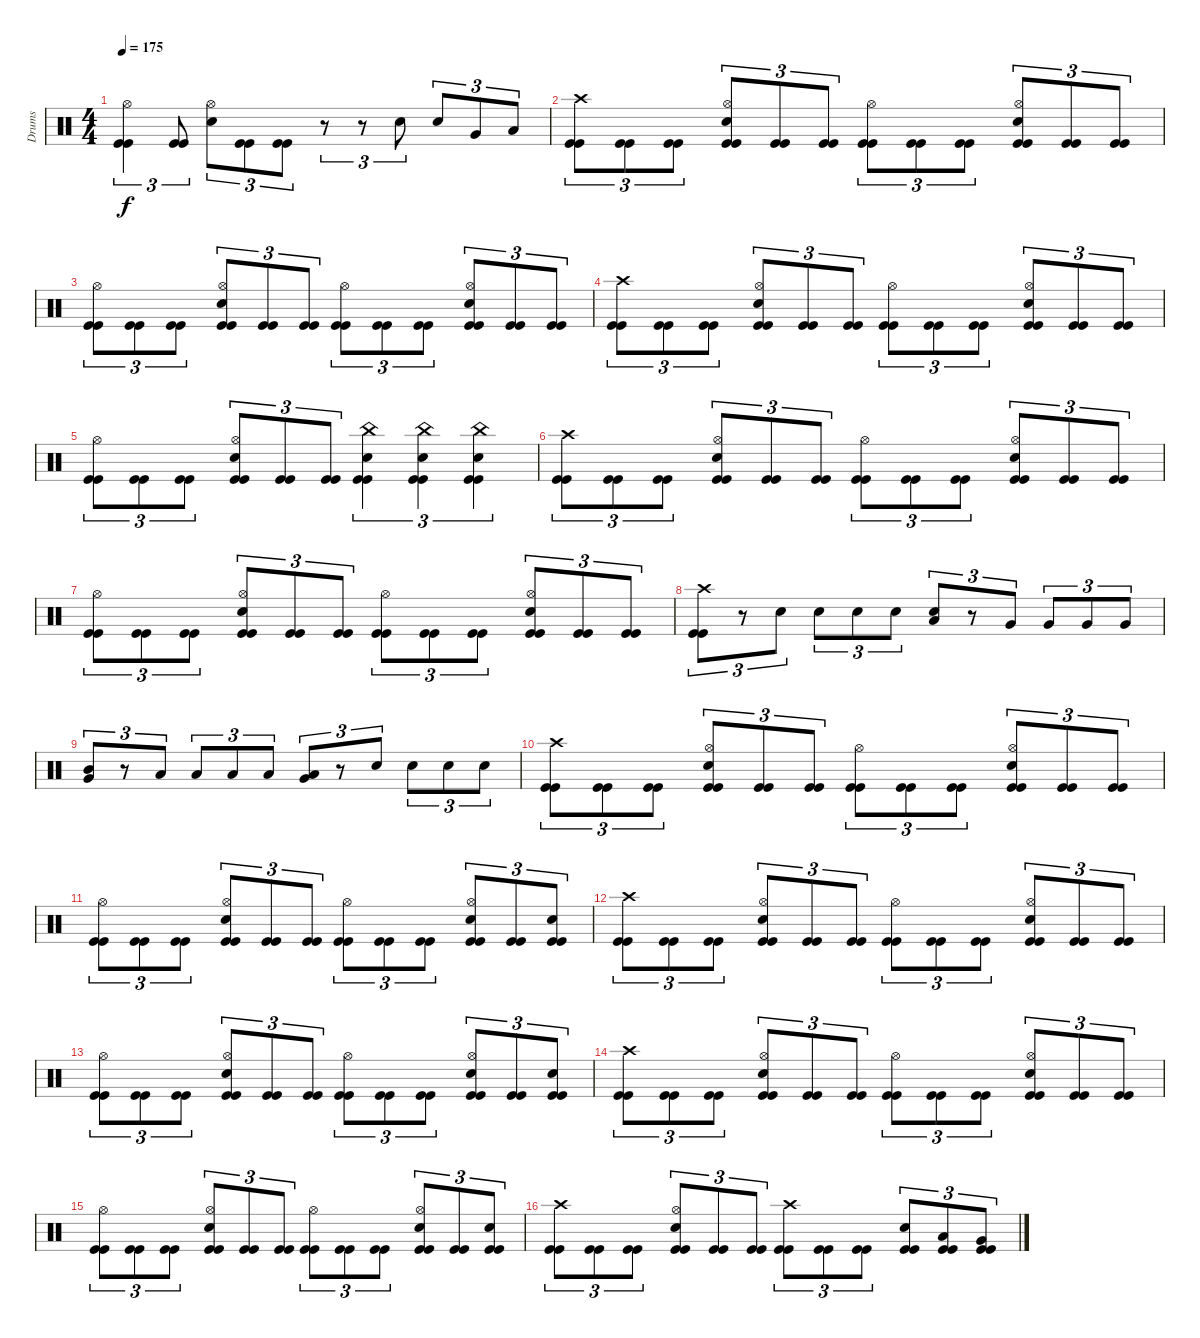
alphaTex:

\track ("Drums" "Drums") {instrument percussion}
\staff {score}
\articulation defaults
\ts (4 4)
\tempo 175
\clef neutral
\ks c
("Kick (hit)" "Kick (hit)" "Hi-Hat (open)").4{tu (3 2) dy f} ("Kick (hit)" "Kick (hit)").8{tu (3 2)} ("Snare (hit) 2" "Hi-Hat (open)").8{tu (3 2)} ("Kick (hit)" "Kick (hit)").8{tu (3 2)} ("Kick (hit)" "Kick (hit)").8{tu (3 2)} r.8{tu (3 2)} r.8{tu (3 2)} "Snare (hit) 2".8{tu (3 2)} "Snare (hit) 2".8{tu (3 2)} "Very Low Tom (hit)".8{tu (3 2)} "Low Floor Tom (hit)".8{tu (3 2)} |
("Kick (hit)" "Kick (hit)" "Crash high (hit)").8{tu (3 2)} ("Kick (hit)" "Kick (hit)").8{tu (3 2)} ("Kick (hit)" "Kick (hit)").8{tu (3 2)} ("Kick (hit)" "Kick (hit)" "Snare (hit) 2" "Hi-Hat (open)").8{tu (3 2)} ("Kick (hit)" "Kick (hit)").8{tu (3 2)} ("Kick (hit)" "Kick (hit)").8{tu (3 2)} ("Kick (hit)" "Kick (hit)" "Hi-Hat (open)").8{tu (3 2)} ("Kick (hit)" "Kick (hit)").8{tu (3 2)} ("Kick (hit)" "Kick (hit)").8{tu (3 2)} ("Kick (hit)" "Kick (hit)" "Snare (hit) 2" "Hi-Hat (open)").8{tu (3 2)} ("Kick (hit)" "Kick (hit)").8{tu (3 2)} ("Kick (hit)" "Kick (hit)").8{tu (3 2)} |
("Kick (hit)" "Kick (hit)" "Hi-Hat (open)").8{tu (3 2)} ("Kick (hit)" "Kick (hit)").8{tu (3 2)} ("Kick (hit)" "Kick (hit)").8{tu (3 2)} ("Kick (hit)" "Kick (hit)" "Snare (hit) 2" "Hi-Hat (open)").8{tu (3 2)} ("Kick (hit)" "Kick (hit)").8{tu (3 2)} ("Kick (hit)" "Kick (hit)").8{tu (3 2)} ("Kick (hit)" "Kick (hit)" "Hi-Hat (open)").8{tu (3 2)} ("Kick (hit)" "Kick (hit)").8{tu (3 2)} ("Kick (hit)" "Kick (hit)").8{tu (3 2)} ("Kick (hit)" "Kick (hit)" "Snare (hit) 2" "Hi-Hat (open)").8{tu (3 2)} ("Kick (hit)" "Kick (hit)").8{tu (3 2)} ("Kick (hit)" "Kick (hit)").8{tu (3 2)} |
("Kick (hit)" "Kick (hit)" "Crash high (hit)").8{tu (3 2)} ("Kick (hit)" "Kick (hit)").8{tu (3 2)} ("Kick (hit)" "Kick (hit)").8{tu (3 2)} ("Kick (hit)" "Kick (hit)" "Snare (hit) 2" "Hi-Hat (open)").8{tu (3 2)} ("Kick (hit)" "Kick (hit)").8{tu (3 2)} ("Kick (hit)" "Kick (hit)").8{tu (3 2)} ("Kick (hit)" "Kick (hit)" "Hi-Hat (open)").8{tu (3 2)} ("Kick (hit)" "Kick (hit)").8{tu (3 2)} ("Kick (hit)" "Kick (hit)").8{tu (3 2)} ("Kick (hit)" "Kick (hit)" "Snare (hit) 2" "Hi-Hat (open)").8{tu (3 2)} ("Kick (hit)" "Kick (hit)").8{tu (3 2)} ("Kick (hit)" "Kick (hit)").8{tu (3 2)} |
("Kick (hit)" "Kick (hit)" "Hi-Hat (open)").8{tu (3 2)} ("Kick (hit)" "Kick (hit)").8{tu (3 2)} ("Kick (hit)" "Kick (hit)").8{tu (3 2)} ("Kick (hit)" "Kick (hit)" "Snare (hit) 2" "Hi-Hat (open)").8{tu (3 2)} ("Kick (hit)" "Kick (hit)").8{tu (3 2)} ("Kick (hit)" "Kick (hit)").8{tu (3 2)} ("Kick (hit)" "Kick (hit)" "Snare (hit) 2" "China (hit)").4{tu (3 2)} ("Kick (hit)" "Kick (hit)" "Snare (hit) 2" "China (hit)").4{tu (3 2)} ("Kick (hit)" "Kick (hit)" "Snare (hit) 2" "China (hit)").4{tu (3 2)} |
("Kick (hit)" "Kick (hit)" "Crash high (hit)").8{tu (3 2)} ("Kick (hit)" "Kick (hit)").8{tu (3 2)} ("Kick (hit)" "Kick (hit)").8{tu (3 2)} ("Kick (hit)" "Kick (hit)" "Snare (hit) 2" "Hi-Hat (open)").8{tu (3 2)} ("Kick (hit)" "Kick (hit)").8{tu (3 2)} ("Kick (hit)" "Kick (hit)").8{tu (3 2)} ("Kick (hit)" "Kick (hit)" "Hi-Hat (open)").8{tu (3 2)} ("Kick (hit)" "Kick (hit)").8{tu (3 2)} ("Kick (hit)" "Kick (hit)").8{tu (3 2)} ("Kick (hit)" "Kick (hit)" "Snare (hit) 2" "Hi-Hat (open)").8{tu (3 2)} ("Kick (hit)" "Kick (hit)").8{tu (3 2)} ("Kick (hit)" "Kick (hit)").8{tu (3 2)} |
("Kick (hit)" "Kick (hit)" "Hi-Hat (open)").8{tu (3 2)} ("Kick (hit)" "Kick (hit)").8{tu (3 2)} ("Kick (hit)" "Kick (hit)").8{tu (3 2)} ("Kick (hit)" "Kick (hit)" "Snare (hit) 2" "Hi-Hat (open)").8{tu (3 2)} ("Kick (hit)" "Kick (hit)").8{tu (3 2)} ("Kick (hit)" "Kick (hit)").8{tu (3 2)} ("Kick (hit)" "Kick (hit)" "Hi-Hat (open)").8{tu (3 2)} ("Kick (hit)" "Kick (hit)").8{tu (3 2)} ("Kick (hit)" "Kick (hit)").8{tu (3 2)} ("Kick (hit)" "Kick (hit)" "Snare (hit) 2" "Hi-Hat (open)").8{tu (3 2)} ("Kick (hit)" "Kick (hit)").8{tu (3 2)} ("Kick (hit)" "Kick (hit)").8{tu (3 2)} |
("Kick (hit)" "Kick (hit)" "Crash high (hit)").8{tu (3 2)} r.8{tu (3 2)} "Snare (hit) 2".8{tu (3 2)} "Snare (hit) 2".8{tu (3 2)} "Snare (hit) 2".8{tu (3 2)} "Snare (hit) 2".8{tu (3 2)} ("Snare (hit) 2" "Low Tom (hit)").8{tu (3 2)} r.8{tu (3 2)} "Very Low Tom (hit)".8{tu (3 2)} "Very Low Tom (hit)".8{tu (3 2)} "Very Low Tom (hit)".8{tu (3 2)} "Very Low Tom (hit)".8{tu (3 2)} |
("Very Low Tom (hit)" "Mid Tom (hit)").8{tu (3 2)} r.8{tu (3 2)} "Low Floor Tom (hit)".8{tu (3 2)} "Low Floor Tom (hit)".8{tu (3 2)} "Low Floor Tom (hit)".8{tu (3 2)} "Low Floor Tom (hit)".8{tu (3 2)} ("Low Floor Tom (hit)" "Very Low Tom (hit)").8{tu (3 2)} r.8{tu (3 2)} "Snare (hit) 2".8{tu (3 2)} "Snare (hit) 2".8{tu (3 2)} "Snare (hit) 2".8{tu (3 2)} "Snare (hit) 2".8{tu (3 2)} |
("Kick (hit)" "Kick (hit)" "Crash high (hit)").8{tu (3 2)} ("Kick (hit)" "Kick (hit)").8{tu (3 2)} ("Kick (hit)" "Kick (hit)").8{tu (3 2)} ("Kick (hit)" "Kick (hit)" "Snare (hit) 2" "Hi-Hat (open)").8{tu (3 2)} ("Kick (hit)" "Kick (hit)").8{tu (3 2)} ("Kick (hit)" "Kick (hit)").8{tu (3 2)} ("Kick (hit)" "Kick (hit)" "Hi-Hat (open)").8{tu (3 2)} ("Kick (hit)" "Kick (hit)").8{tu (3 2)} ("Kick (hit)" "Kick (hit)").8{tu (3 2)} ("Kick (hit)" "Kick (hit)" "Snare (hit) 2" "Hi-Hat (open)").8{tu (3 2)} ("Kick (hit)" "Kick (hit)").8{tu (3 2)} ("Kick (hit)" "Kick (hit)").8{tu (3 2)} |
("Kick (hit)" "Kick (hit)" "Hi-Hat (open)").8{tu (3 2)} ("Kick (hit)" "Kick (hit)").8{tu (3 2)} ("Kick (hit)" "Kick (hit)").8{tu (3 2)} ("Kick (hit)" "Kick (hit)" "Snare (hit) 2" "Hi-Hat (open)").8{tu (3 2)} ("Kick (hit)" "Kick (hit)").8{tu (3 2)} ("Kick (hit)" "Kick (hit)").8{tu (3 2)} ("Kick (hit)" "Kick (hit)" "Hi-Hat (open)").8{tu (3 2)} ("Kick (hit)" "Kick (hit)").8{tu (3 2)} ("Kick (hit)" "Kick (hit)").8{tu (3 2)} ("Kick (hit)" "Kick (hit)" "Snare (hit) 2" "Hi-Hat (open)").8{tu (3 2)} ("Kick (hit)" "Kick (hit)").8{tu (3 2)} ("Kick (hit)" "Kick (hit)" "Snare (hit) 2").8{tu (3 2)} |
("Kick (hit)" "Kick (hit)" "Crash high (hit)").8{tu (3 2)} ("Kick (hit)" "Kick (hit)").8{tu (3 2)} ("Kick (hit)" "Kick (hit)").8{tu (3 2)} ("Kick (hit)" "Kick (hit)" "Snare (hit) 2" "Hi-Hat (open)").8{tu (3 2)} ("Kick (hit)" "Kick (hit)").8{tu (3 2)} ("Kick (hit)" "Kick (hit)").8{tu (3 2)} ("Kick (hit)" "Kick (hit)" "Hi-Hat (open)").8{tu (3 2)} ("Kick (hit)" "Kick (hit)").8{tu (3 2)} ("Kick (hit)" "Kick (hit)").8{tu (3 2)} ("Kick (hit)" "Kick (hit)" "Snare (hit) 2" "Hi-Hat (open)").8{tu (3 2)} ("Kick (hit)" "Kick (hit)").8{tu (3 2)} ("Kick (hit)" "Kick (hit)").8{tu (3 2)} |
("Kick (hit)" "Kick (hit)" "Hi-Hat (open)").8{tu (3 2)} ("Kick (hit)" "Kick (hit)").8{tu (3 2)} ("Kick (hit)" "Kick (hit)").8{tu (3 2)} ("Kick (hit)" "Kick (hit)" "Snare (hit) 2" "Hi-Hat (open)").8{tu (3 2)} ("Kick (hit)" "Kick (hit)").8{tu (3 2)} ("Kick (hit)" "Kick (hit)").8{tu (3 2)} ("Kick (hit)" "Kick (hit)" "Hi-Hat (open)").8{tu (3 2)} ("Kick (hit)" "Kick (hit)").8{tu (3 2)} ("Kick (hit)" "Kick (hit)").8{tu (3 2)} ("Kick (hit)" "Kick (hit)" "Snare (hit) 2" "Hi-Hat (open)").8{tu (3 2)} ("Kick (hit)" "Kick (hit)").8{tu (3 2)} ("Kick (hit)" "Kick (hit)" "Snare (hit) 2").8{tu (3 2)} |
("Kick (hit)" "Kick (hit)" "Crash high (hit)").8{tu (3 2)} ("Kick (hit)" "Kick (hit)").8{tu (3 2)} ("Kick (hit)" "Kick (hit)").8{tu (3 2)} ("Kick (hit)" "Kick (hit)" "Snare (hit) 2" "Hi-Hat (open)").8{tu (3 2)} ("Kick (hit)" "Kick (hit)").8{tu (3 2)} ("Kick (hit)" "Kick (hit)").8{tu (3 2)} ("Kick (hit)" "Kick (hit)" "Hi-Hat (open)").8{tu (3 2)} ("Kick (hit)" "Kick (hit)").8{tu (3 2)} ("Kick (hit)" "Kick (hit)").8{tu (3 2)} ("Kick (hit)" "Kick (hit)" "Snare (hit) 2" "Hi-Hat (open)").8{tu (3 2)} ("Kick (hit)" "Kick (hit)").8{tu (3 2)} ("Kick (hit)" "Kick (hit)").8{tu (3 2)} |
("Kick (hit)" "Kick (hit)" "Hi-Hat (open)").8{tu (3 2)} ("Kick (hit)" "Kick (hit)").8{tu (3 2)} ("Kick (hit)" "Kick (hit)").8{tu (3 2)} ("Kick (hit)" "Kick (hit)" "Snare (hit) 2" "Hi-Hat (open)").8{tu (3 2)} ("Kick (hit)" "Kick (hit)").8{tu (3 2)} ("Kick (hit)" "Kick (hit)").8{tu (3 2)} ("Kick (hit)" "Kick (hit)" "Hi-Hat (open)").8{tu (3 2)} ("Kick (hit)" "Kick (hit)").8{tu (3 2)} ("Kick (hit)" "Kick (hit)").8{tu (3 2)} ("Kick (hit)" "Kick (hit)" "Snare (hit) 2" "Hi-Hat (open)").8{tu (3 2)} ("Kick (hit)" "Kick (hit)").8{tu (3 2)} ("Kick (hit)" "Kick (hit)" "Snare (hit) 2").8{tu (3 2)} |
("Kick (hit)" "Kick (hit)" "Crash high (hit)").8{tu (3 2)} ("Kick (hit)" "Kick (hit)").8{tu (3 2)} ("Kick (hit)" "Kick (hit)").8{tu (3 2)} ("Kick (hit)" "Kick (hit)" "Snare (hit) 2" "Hi-Hat (open)").8{tu (3 2)} ("Kick (hit)" "Kick (hit)").8{tu (3 2)} ("Kick (hit)" "Kick (hit)").8{tu (3 2)} ("Kick (hit)" "Kick (hit)" "Crash high (hit)").8{tu (3 2)} ("Kick (hit)" "Kick (hit)").8{tu (3 2)} ("Kick (hit)" "Kick (hit)").8{tu (3 2)} ("Kick (hit)" "Kick (hit)" "Snare (hit) 2").8{tu (3 2)} ("Kick (hit)" "Kick (hit)" "Low Tom (hit)").8{tu (3 2)} ("Kick (hit)" "Kick (hit)" "Very Low Tom (hit)").8{tu (3 2)}
